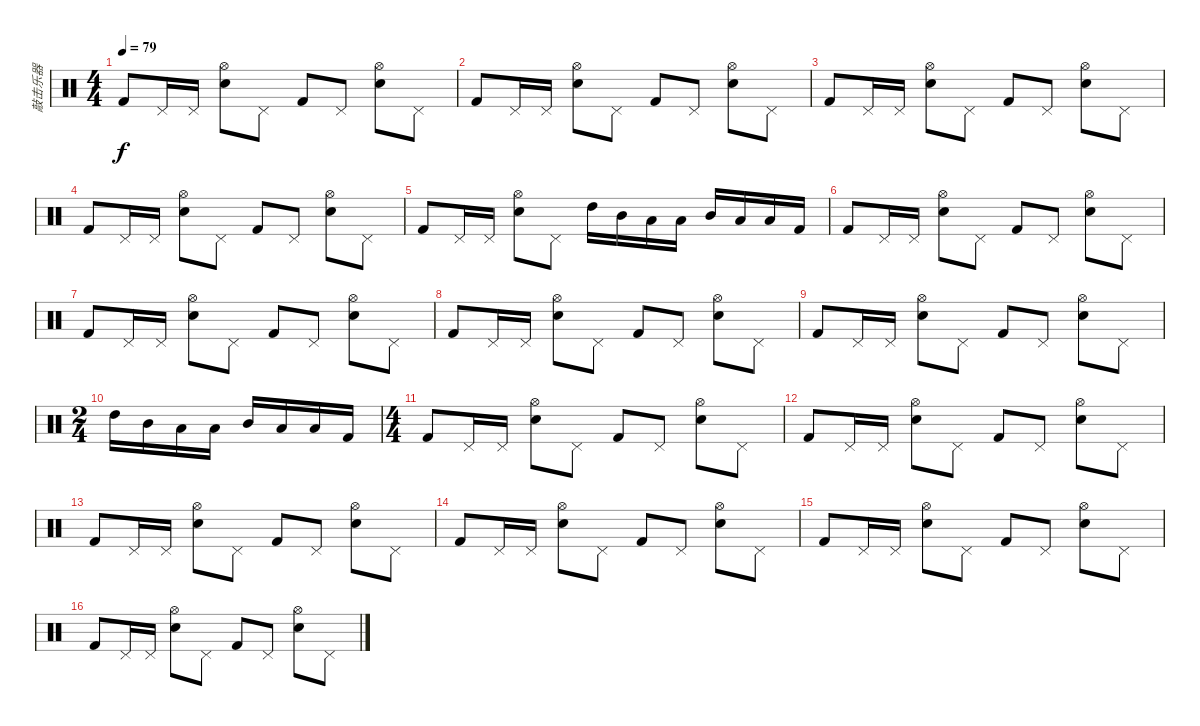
\track ("敲击乐器" "敲击乐器") {instrument percussion}
\staff {score}
\articulation defaults
\ts (4 4)
\tempo 79
\clef neutral
\ks c "Kick (hit) 2".8{dy f} "Pedal Hi-Hat (hit)".16 "Pedal Hi-Hat (hit)".16
("Hi-Hat (open)" "Electric Snare (hit)").8 "Pedal Hi-Hat (hit)".8 "Kick (hit) 2".8 "Pedal Hi-Hat (hit)".8 ("Hi-Hat (open)" "Electric Snare (hit)").8 "Pedal Hi-Hat (hit)".8 |
"Kick (hit) 2".8 "Pedal Hi-Hat (hit)".16 "Pedal Hi-Hat (hit)".16 ("Hi-Hat (open)" "Electric Snare (hit)").8 "Pedal Hi-Hat (hit)".8 "Kick (hit) 2".8 "Pedal Hi-Hat (hit)".8 ("Hi-Hat (open)" "Electric Snare (hit)").8 "Pedal Hi-Hat (hit)".8 |
"Kick (hit) 2".8 "Pedal Hi-Hat (hit)".16 "Pedal Hi-Hat (hit)".16 ("Hi-Hat (open)" "Electric Snare (hit)").8 "Pedal Hi-Hat (hit)".8 "Kick (hit) 2".8 "Pedal Hi-Hat (hit)".8 ("Hi-Hat (open)" "Electric Snare (hit)").8 "Pedal Hi-Hat (hit)".8 |
"Kick (hit) 2".8 "Pedal Hi-Hat (hit)".16 "Pedal Hi-Hat (hit)".16 ("Hi-Hat (open)" "Electric Snare (hit)").8 "Pedal Hi-Hat (hit)".8 "Kick (hit) 2".8 "Pedal Hi-Hat (hit)".8 ("Hi-Hat (open)" "Electric Snare (hit)").8 "Pedal Hi-Hat (hit)".8 |
"Kick (hit) 2".8 "Pedal Hi-Hat (hit)".16 "Pedal Hi-Hat (hit)".16 ("Hi-Hat (open)" "Electric Snare (hit)").8 "Pedal Hi-Hat (hit)".8 "High Tom (hit)".16 "Mid Tom (hit)".16 "Low Tom (hit)".16 "Low Floor Tom (hit)".16 "Mid Tom (hit)".16 "Low Tom (hit)".16 "Low Floor Tom (hit)".16 "Kick (hit) 2".16 |
"Kick (hit) 2".8 "Pedal Hi-Hat (hit)".16 "Pedal Hi-Hat (hit)".16 ("Hi-Hat (open)" "Electric Snare (hit)").8 "Pedal Hi-Hat (hit)".8 "Kick (hit) 2".8 "Pedal Hi-Hat (hit)".8 ("Hi-Hat (open)" "Electric Snare (hit)").8 "Pedal Hi-Hat (hit)".8 |
"Kick (hit) 2".8 "Pedal Hi-Hat (hit)".16 "Pedal Hi-Hat (hit)".16 ("Hi-Hat (open)" "Electric Snare (hit)").8 "Pedal Hi-Hat (hit)".8 "Kick (hit) 2".8 "Pedal Hi-Hat (hit)".8 ("Hi-Hat (open)" "Electric Snare (hit)").8 "Pedal Hi-Hat (hit)".8 |
"Kick (hit) 2".8 "Pedal Hi-Hat (hit)".16 "Pedal Hi-Hat (hit)".16 ("Hi-Hat (open)" "Electric Snare (hit)").8 "Pedal Hi-Hat (hit)".8 "Kick (hit) 2".8 "Pedal Hi-Hat (hit)".8 ("Hi-Hat (open)" "Electric Snare (hit)").8 "Pedal Hi-Hat (hit)".8 |
"Kick (hit) 2".8 "Pedal Hi-Hat (hit)".16 "Pedal Hi-Hat (hit)".16 ("Hi-Hat (open)" "Electric Snare (hit)").8 "Pedal Hi-Hat (hit)".8 "Kick (hit) 2".8 "Pedal Hi-Hat (hit)".8 ("Hi-Hat (open)" "Electric Snare (hit)").8 "Pedal Hi-Hat (hit)".8 |
\ts (2 4)
"High Tom (hit)".16 "Mid Tom (hit)".16 "Low Tom (hit)".16 "Low Floor Tom (hit)".16 "Mid Tom (hit)".16 "Low Tom (hit)".16 "Low Floor Tom (hit)".16 "Kick (hit) 2".16 |
\ts (4 4)
"Kick (hit) 2".8 "Pedal Hi-Hat (hit)".16 "Pedal Hi-Hat (hit)".16 ("Hi-Hat (open)" "Electric Snare (hit)").8 "Pedal Hi-Hat (hit)".8 "Kick (hit) 2".8 "Pedal Hi-Hat (hit)".8 ("Hi-Hat (open)" "Electric Snare (hit)").8 "Pedal Hi-Hat (hit)".8 |
"Kick (hit) 2".8 "Pedal Hi-Hat (hit)".16 "Pedal Hi-Hat (hit)".16 ("Hi-Hat (open)" "Electric Snare (hit)").8 "Pedal Hi-Hat (hit)".8 "Kick (hit) 2".8 "Pedal Hi-Hat (hit)".8 ("Hi-Hat (open)" "Electric Snare (hit)").8 "Pedal Hi-Hat (hit)".8 |
"Kick (hit) 2".8 "Pedal Hi-Hat (hit)".16 "Pedal Hi-Hat (hit)".16 ("Hi-Hat (open)" "Electric Snare (hit)").8 "Pedal Hi-Hat (hit)".8 "Kick (hit) 2".8 "Pedal Hi-Hat (hit)".8 ("Hi-Hat (open)" "Electric Snare (hit)").8 "Pedal Hi-Hat (hit)".8 |
"Kick (hit) 2".8 "Pedal Hi-Hat (hit)".16 "Pedal Hi-Hat (hit)".16 ("Hi-Hat (open)" "Electric Snare (hit)").8 "Pedal Hi-Hat (hit)".8 "Kick (hit) 2".8 "Pedal Hi-Hat (hit)".8 ("Hi-Hat (open)" "Electric Snare (hit)").8 "Pedal Hi-Hat (hit)".8 |
"Kick (hit) 2".8 "Pedal Hi-Hat (hit)".16 "Pedal Hi-Hat (hit)".16 ("Hi-Hat (open)" "Electric Snare (hit)").8 "Pedal Hi-Hat (hit)".8 "Kick (hit) 2".8 "Pedal Hi-Hat (hit)".8 ("Hi-Hat (open)" "Electric Snare (hit)").8 "Pedal Hi-Hat (hit)".8 |
"Kick (hit) 2".8 "Pedal Hi-Hat (hit)".16 "Pedal Hi-Hat (hit)".16 ("Hi-Hat (open)" "Electric Snare (hit)").8 "Pedal Hi-Hat (hit)".8 "Kick (hit) 2".8 "Pedal Hi-Hat (hit)".8 ("Hi-Hat (open)" "Electric Snare (hit)").8 "Pedal Hi-Hat (hit)".8
